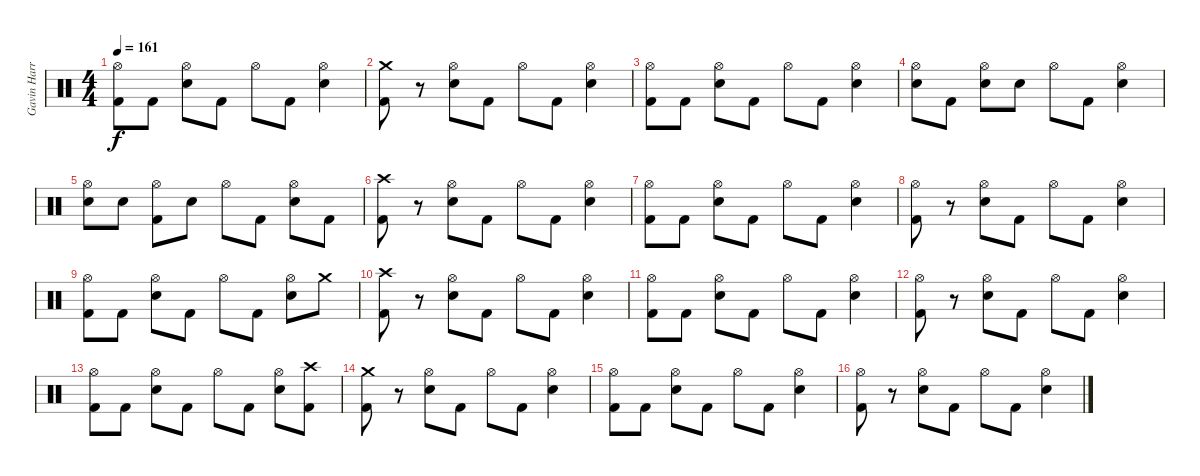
\track ("Gavin Harrison (Drums)" "Gavin Harr") {instrument percussion}
\staff {score}
\articulation defaults
\ts (4 4)
\tempo 161
\clef neutral
\ks c
("Hi-Hat (open)" "Kick (hit) 2").8{dy f} "Kick (hit) 2".8 ("Hi-Hat (open)" "Electric Snare (hit)").8 "Kick (hit) 2".8 "Hi-Hat (open)".8 "Kick (hit) 2".8 ("Hi-Hat (open)" "Electric Snare (hit)").4 |
("Crash medium (hit)" "Kick (hit) 2").8 r.8 ("Hi-Hat (open)" "Electric Snare (hit)").8 "Kick (hit) 2".8 "Hi-Hat (open)".8 "Kick (hit) 2".8 ("Hi-Hat (open)" "Electric Snare (hit)").4 |
("Hi-Hat (open)" "Kick (hit) 2").8 "Kick (hit) 2".8 ("Hi-Hat (open)" "Electric Snare (hit)").8 "Kick (hit) 2".8 "Hi-Hat (open)".8 "Kick (hit) 2".8 ("Hi-Hat (open)" "Electric Snare (hit)").4 |
("Hi-Hat (open)" "Electric Snare (hit)").8 "Kick (hit) 2".8 ("Hi-Hat (open)" "Electric Snare (hit)").8 "Electric Snare (hit)".8 "Hi-Hat (open)".8 "Kick (hit) 2".8 ("Hi-Hat (open)" "Electric Snare (hit)").4 |
("Hi-Hat (open)" "Electric Snare (hit)").8 "Electric Snare (hit)".8 ("Hi-Hat (open)" "Kick (hit) 2").8 "Electric Snare (hit)".8 "Hi-Hat (open)".8 "Kick (hit) 2".8 ("Hi-Hat (open)" "Electric Snare (hit)").8 "Kick (hit) 2".8 |
("Crash high (hit)" "Kick (hit) 2").8 r.8 ("Hi-Hat (open)" "Electric Snare (hit)").8 "Kick (hit) 2".8 "Hi-Hat (open)".8 "Kick (hit) 2".8 ("Hi-Hat (open)" "Electric Snare (hit)").4 |
("Hi-Hat (open)" "Kick (hit) 2").8 "Kick (hit) 2".8 ("Hi-Hat (open)" "Electric Snare (hit)").8 "Kick (hit) 2".8 "Hi-Hat (open)".8 "Kick (hit) 2".8 ("Hi-Hat (open)" "Electric Snare (hit)").4 |
("Hi-Hat (open)" "Kick (hit) 2").8 r.8 ("Hi-Hat (open)" "Electric Snare (hit)").8 "Kick (hit) 2".8 "Hi-Hat (open)".8 "Kick (hit) 2".8 ("Hi-Hat (open)" "Electric Snare (hit)").4 |
("Hi-Hat (open)" "Kick (hit) 2").8 "Kick (hit) 2".8 ("Hi-Hat (open)" "Electric Snare (hit)").8 "Kick (hit) 2".8 "Hi-Hat (open)".8 "Kick (hit) 2".8 ("Hi-Hat (open)" "Electric Snare (hit)").8 "Crash medium (hit)".8 |
("Crash high (hit)" "Kick (hit) 2").8 r.8 ("Hi-Hat (open)" "Electric Snare (hit)").8 "Kick (hit) 2".8 "Hi-Hat (open)".8 "Kick (hit) 2".8 ("Hi-Hat (open)" "Electric Snare (hit)").4 |
("Hi-Hat (open)" "Kick (hit) 2").8 "Kick (hit) 2".8 ("Hi-Hat (open)" "Electric Snare (hit)").8 "Kick (hit) 2".8 "Hi-Hat (open)".8 "Kick (hit) 2".8 ("Hi-Hat (open)" "Electric Snare (hit)").4 |
("Hi-Hat (open)" "Kick (hit) 2").8 r.8 ("Hi-Hat (open)" "Electric Snare (hit)").8 "Kick (hit) 2".8 "Hi-Hat (open)".8 "Kick (hit) 2".8 ("Hi-Hat (open)" "Electric Snare (hit)").4 |
("Hi-Hat (open)" "Kick (hit) 2").8 "Kick (hit) 2".8 ("Hi-Hat (open)" "Electric Snare (hit)").8 "Kick (hit) 2".8 "Hi-Hat (open)".8 "Kick (hit) 2".8 ("Hi-Hat (open)" "Electric Snare (hit)").8 ("Crash high (hit)" "Kick (hit) 2").8 |
("Crash medium (hit)" "Kick (hit) 2").8 r.8 ("Hi-Hat (open)" "Electric Snare (hit)").8 "Kick (hit) 2".8 "Hi-Hat (open)".8 "Kick (hit) 2".8 ("Hi-Hat (open)" "Electric Snare (hit)").4 |
("Hi-Hat (open)" "Kick (hit) 2").8 "Kick (hit) 2".8 ("Hi-Hat (open)" "Electric Snare (hit)").8 "Kick (hit) 2".8 "Hi-Hat (open)".8 "Kick (hit) 2".8 ("Hi-Hat (open)" "Electric Snare (hit)").4 |
("Hi-Hat (open)" "Kick (hit) 2").8 r.8 ("Hi-Hat (open)" "Electric Snare (hit)").8 "Kick (hit) 2".8 "Hi-Hat (open)".8 "Kick (hit) 2".8 ("Hi-Hat (open)" "Electric Snare (hit)").4
